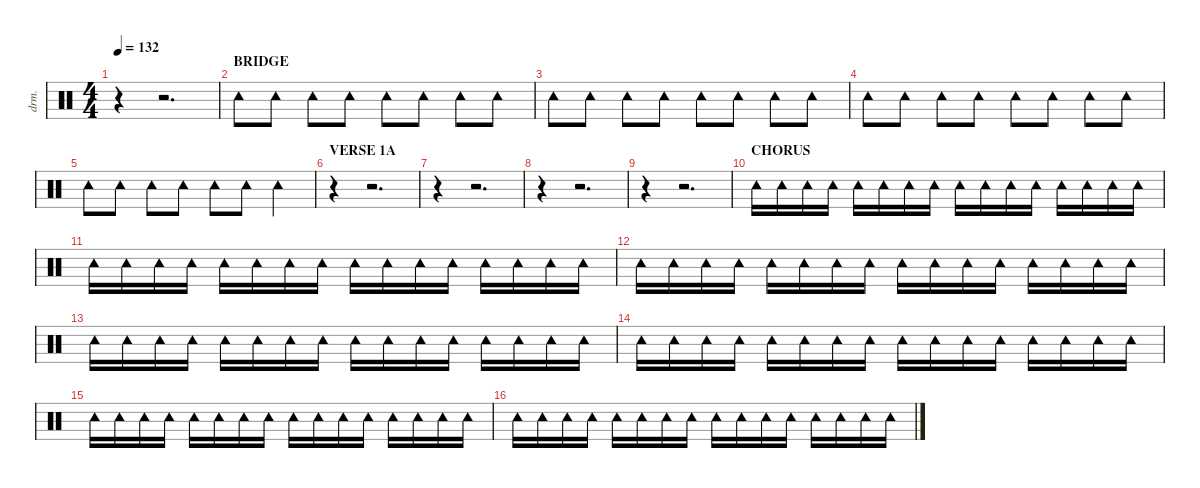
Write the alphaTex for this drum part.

\defaultSystemsLayout 4
\hideDynamics
\bracketExtendMode nobrackets
\otherSystemsTrackNameOrientation horizontal
\track ("Percussion" "drm.") {instrument percussion}
\staff {score}
\articulation defaults
\ts (4 4)
\tempo 132
\clef neutral
\ks c
r.4{dy f beam Down} r.2{d beam Down} |
\section ("" "BRIDGE")
"Tambourine (hit)".8{beam Down} "Tambourine (hit)".8{beam Down} "Tambourine (hit)".8{dy fff beam Down} "Tambourine (hit)".8{dy f beam Down} "Tambourine (hit)".8{beam Down} "Tambourine (hit)".8{beam Down} "Tambourine (hit)".8{dy fff beam Down} "Tambourine (hit)".8{dy f beam Down} |
"Tambourine (hit)".8{beam Down} "Tambourine (hit)".8{beam Down} "Tambourine (hit)".8{dy fff beam Down} "Tambourine (hit)".8{dy f beam Down} "Tambourine (hit)".8{beam Down} "Tambourine (hit)".8{beam Down} "Tambourine (hit)".8{dy fff beam Down} "Tambourine (hit)".8{dy f beam Down} |
"Tambourine (hit)".8{beam Down} "Tambourine (hit)".8{beam Down} "Tambourine (hit)".8{dy fff beam Down} "Tambourine (hit)".8{dy f beam Down} "Tambourine (hit)".8{beam Down} "Tambourine (hit)".8{beam Down} "Tambourine (hit)".8{dy fff beam Down} "Tambourine (hit)".8{dy f beam Down} |
"Tambourine (hit)".8{beam Down} "Tambourine (hit)".8{beam Down} "Tambourine (hit)".8{dy fff beam Down} "Tambourine (hit)".8{dy f beam Down} "Tambourine (hit)".8{beam Down} "Tambourine (hit)".8{beam Down} "Tambourine (hit)".4{dy fff beam Down} |
\section ("" "VERSE 1A")
r.4{beam Down} r.2{d beam Down} |
r.4{beam Down} r.2{d beam Down} |
r.4{beam Down} r.2{d beam Down} |
r.4{beam Down} r.2{d beam Down} |
\section ("" "CHORUS")
"Tambourine (hit)".16{dy f beam Down} "Tambourine (hit)".16{beam Down} "Tambourine (hit)".16{beam Down} "Tambourine (hit)".16{beam Down} "Tambourine (hit)".16{dy fff beam Down} "Tambourine (hit)".16{dy f beam Down} "Tambourine (hit)".16{beam Down} "Tambourine (hit)".16{beam Down} "Tambourine (hit)".16{beam Down} "Tambourine (hit)".16{beam Down} "Tambourine (hit)".16{beam Down} "Tambourine (hit)".16{beam Down} "Tambourine (hit)".16{dy fff beam Down} "Tambourine (hit)".16{dy f beam Down} "Tambourine (hit)".16{beam Down} "Tambourine (hit)".16{beam Down} |
"Tambourine (hit)".16{beam Down} "Tambourine (hit)".16{beam Down} "Tambourine (hit)".16{beam Down} "Tambourine (hit)".16{beam Down} "Tambourine (hit)".16{dy fff beam Down} "Tambourine (hit)".16{dy f beam Down} "Tambourine (hit)".16{beam Down} "Tambourine (hit)".16{beam Down} "Tambourine (hit)".16{beam Down} "Tambourine (hit)".16{beam Down} "Tambourine (hit)".16{beam Down} "Tambourine (hit)".16{beam Down} "Tambourine (hit)".16{dy fff beam Down} "Tambourine (hit)".16{dy f beam Down} "Tambourine (hit)".16{beam Down} "Tambourine (hit)".16{beam Down} |
"Tambourine (hit)".16{beam Down} "Tambourine (hit)".16{beam Down} "Tambourine (hit)".16{beam Down} "Tambourine (hit)".16{beam Down} "Tambourine (hit)".16{dy fff beam Down} "Tambourine (hit)".16{dy f beam Down} "Tambourine (hit)".16{beam Down} "Tambourine (hit)".16{beam Down} "Tambourine (hit)".16{beam Down} "Tambourine (hit)".16{beam Down} "Tambourine (hit)".16{beam Down} "Tambourine (hit)".16{beam Down} "Tambourine (hit)".16{dy fff beam Down} "Tambourine (hit)".16{dy f beam Down} "Tambourine (hit)".16{beam Down} "Tambourine (hit)".16{beam Down} |
"Tambourine (hit)".16{beam Down} "Tambourine (hit)".16{beam Down} "Tambourine (hit)".16{beam Down} "Tambourine (hit)".16{beam Down} "Tambourine (hit)".16{dy fff beam Down} "Tambourine (hit)".16{dy f beam Down} "Tambourine (hit)".16{beam Down} "Tambourine (hit)".16{beam Down} "Tambourine (hit)".16{beam Down} "Tambourine (hit)".16{beam Down} "Tambourine (hit)".16{beam Down} "Tambourine (hit)".16{beam Down} "Tambourine (hit)".16{dy fff beam Down} "Tambourine (hit)".16{dy f beam Down} "Tambourine (hit)".16{beam Down} "Tambourine (hit)".16{beam Down} |
"Tambourine (hit)".16{beam Down} "Tambourine (hit)".16{beam Down} "Tambourine (hit)".16{beam Down} "Tambourine (hit)".16{beam Down} "Tambourine (hit)".16{dy fff beam Down} "Tambourine (hit)".16{dy f beam Down} "Tambourine (hit)".16{beam Down} "Tambourine (hit)".16{beam Down} "Tambourine (hit)".16{beam Down} "Tambourine (hit)".16{beam Down} "Tambourine (hit)".16{beam Down} "Tambourine (hit)".16{beam Down} "Tambourine (hit)".16{dy fff beam Down} "Tambourine (hit)".16{dy f beam Down} "Tambourine (hit)".16{beam Down} "Tambourine (hit)".16{beam Down} |
"Tambourine (hit)".16{beam Down} "Tambourine (hit)".16{beam Down} "Tambourine (hit)".16{beam Down} "Tambourine (hit)".16{beam Down} "Tambourine (hit)".16{dy fff beam Down} "Tambourine (hit)".16{dy f beam Down} "Tambourine (hit)".16{beam Down} "Tambourine (hit)".16{beam Down} "Tambourine (hit)".16{beam Down} "Tambourine (hit)".16{beam Down} "Tambourine (hit)".16{beam Down} "Tambourine (hit)".16{beam Down} "Tambourine (hit)".16{dy fff beam Down} "Tambourine (hit)".16{dy f beam Down} "Tambourine (hit)".16{beam Down} "Tambourine (hit)".16{beam Down} |
"Tambourine (hit)".16{beam Down} "Tambourine (hit)".16{beam Down} "Tambourine (hit)".16{beam Down} "Tambourine (hit)".16{beam Down} "Tambourine (hit)".16{dy fff beam Down} "Tambourine (hit)".16{dy f beam Down} "Tambourine (hit)".16{beam Down} "Tambourine (hit)".16{beam Down} "Tambourine (hit)".16{beam Down} "Tambourine (hit)".16{beam Down} "Tambourine (hit)".16{beam Down} "Tambourine (hit)".16{beam Down} "Tambourine (hit)".16{dy fff beam Down} "Tambourine (hit)".16{dy f beam Down} "Tambourine (hit)".16{beam Down} "Tambourine (hit)".16{beam Down}
